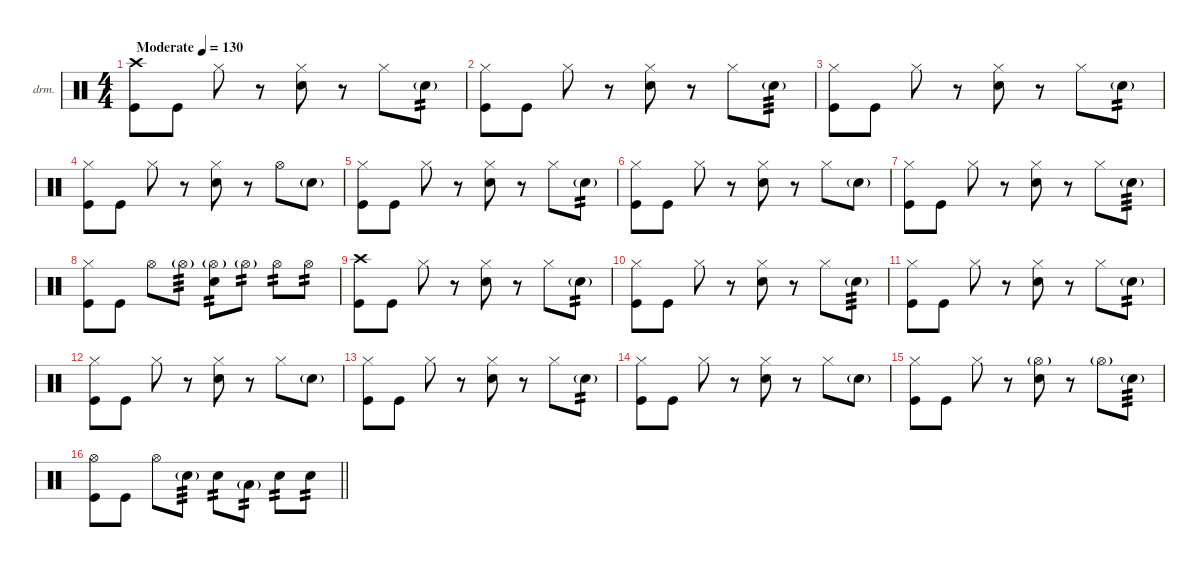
\defaultSystemsLayout 4
\hideDynamics
\bracketExtendMode nobrackets
\firstSystemTrackNameOrientation horizontal
\otherSystemsTrackNameOrientation horizontal
\track ("Drums" "drm.") {instrument percussion}
\staff {score}
\articulation defaults
\ts (4 4)
\beaming (8 2 2 2 2)
\tempo (130 "Moderate")
\clef neutral
\ks c
("Crash high (hit)" "Kick (hit)").8{dy f} "Kick (hit)".8 "Hi-Hat (closed)".8 r.8 ("Hi-Hat (closed)" "Snare (hit) 2").8 r.8 "Hi-Hat (closed)".8 "Snare (hit) 2"{g}.8{tp 2 dy mf} |
("Hi-Hat (closed)" "Kick (hit)").8{dy f} "Kick (hit)".8 "Hi-Hat (closed)".8 r.8 ("Hi-Hat (closed)" "Snare (hit) 2").8 r.8 "Hi-Hat (closed)".8 "Snare (hit) 2"{g}.8{tp 3 dy mf} |
("Hi-Hat (closed)" "Kick (hit)").8{dy f} "Kick (hit)".8 "Hi-Hat (closed)".8 r.8 ("Hi-Hat (closed)" "Snare (hit) 2").8 r.8 "Hi-Hat (closed)".8 "Snare (hit) 2"{g}.8{tp 2 dy mf} |
("Hi-Hat (closed)" "Kick (hit)").8{dy f} "Kick (hit)".8 "Hi-Hat (closed)".8 r.8 ("Hi-Hat (closed)" "Snare (hit) 2").8 r.8 "Hi-Hat (open)".8 "Snare (hit) 2"{g}.8{dy mf} |
("Hi-Hat (closed)" "Kick (hit)").8{dy f} "Kick (hit)".8 "Hi-Hat (closed)".8 r.8 ("Hi-Hat (closed)" "Snare (hit) 2").8 r.8 "Hi-Hat (closed)".8 "Snare (hit) 2"{g}.8{tp 2 dy mf} |
("Hi-Hat (closed)" "Kick (hit)").8{dy f} "Kick (hit)".8 "Hi-Hat (closed)".8 r.8 ("Hi-Hat (closed)" "Snare (hit) 2").8 r.8 "Hi-Hat (closed)".8 "Snare (hit) 2"{g}.8{dy mf} |
("Hi-Hat (closed)" "Kick (hit)").8{dy f} "Kick (hit)".8 "Hi-Hat (closed)".8 r.8 ("Hi-Hat (closed)" "Snare (hit) 2").8 r.8 "Hi-Hat (closed)".8 "Snare (hit) 2"{g}.8{tp 3 dy mf} |
("Hi-Hat (closed)" "Kick (hit)").8{dy f} "Kick (hit)".8 "Hi-Hat (open)".8 "Hi-Hat (open)"{g}.8{tp 3 dy mf} ("Hi-Hat (open)"{g} "Snare (hit) 2").8{tp 2 dy f} "Hi-Hat (open)"{g}.8{tp 2 dy mf} "Hi-Hat (open)".8{tp 2 dy f} "Hi-Hat (open)".8{tp 2} |
("Crash high (hit)" "Kick (hit)").8 "Kick (hit)".8 "Hi-Hat (closed)".8 r.8 ("Hi-Hat (closed)" "Snare (hit) 2").8 r.8 "Hi-Hat (closed)".8 "Snare (hit) 2"{g}.8{tp 2 dy mf} |
("Hi-Hat (closed)" "Kick (hit)").8{dy f} "Kick (hit)".8 "Hi-Hat (closed)".8 r.8 ("Hi-Hat (closed)" "Snare (hit) 2").8 r.8 "Hi-Hat (closed)".8 "Snare (hit) 2"{g}.8{tp 3 dy mf} |
("Hi-Hat (closed)" "Kick (hit)").8{dy f} "Kick (hit)".8 "Hi-Hat (closed)".8 r.8 ("Hi-Hat (closed)" "Snare (hit) 2").8 r.8 "Hi-Hat (closed)".8 "Snare (hit) 2"{g}.8{tp 2 dy mf} |
("Hi-Hat (closed)" "Kick (hit)").8{dy f} "Kick (hit)".8 "Hi-Hat (closed)".8 r.8 ("Hi-Hat (closed)" "Snare (hit) 2").8 r.8 "Hi-Hat (closed)".8 "Snare (hit) 2"{g}.8{dy mf} |
("Hi-Hat (closed)" "Kick (hit)").8{dy f} "Kick (hit)".8 "Hi-Hat (closed)".8 r.8 ("Hi-Hat (closed)" "Snare (hit) 2").8 r.8 "Hi-Hat (closed)".8 "Snare (hit) 2"{g}.8{tp 2 dy mf} |
("Hi-Hat (closed)" "Kick (hit)").8{dy f} "Kick (hit)".8 "Hi-Hat (closed)".8 r.8 ("Hi-Hat (closed)" "Snare (hit) 2").8 r.8 "Hi-Hat (closed)".8 "Snare (hit) 2"{g}.8{dy mf} |
("Hi-Hat (closed)" "Kick (hit)").8{dy f} "Kick (hit)".8 "Hi-Hat (closed)".8 r.8 ("Hi-Hat (open)"{g} "Snare (hit) 2").8 r.8 "Hi-Hat (open)"{g}.8{dy mf} "Snare (hit) 2"{g}.8{tp 3} |
\barLineRight lightlight
("Hi-Hat (open)" "Kick (hit)").8{dy f} "Kick (hit)".8 "Hi-Hat (open)".8 "Snare (hit) 2"{g}.8{tp 3 dy mf} "Snare (hit) 2".8{tp 2 dy f} "Low Tom (hit)"{g}.8{tp 2 dy mf} "Snare (hit) 2".8{tp 2 dy f} "Snare (hit) 2".8{tp 2}
